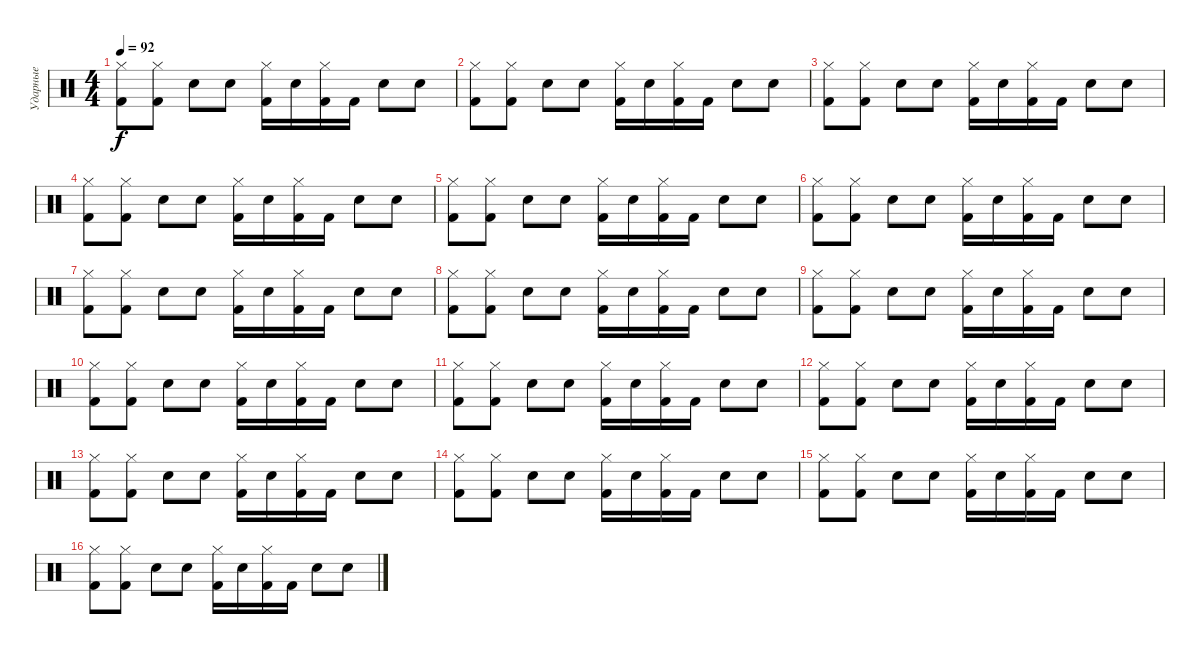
\track ("Ударные" "Ударные") {instrument percussion}
\staff {score}
\articulation defaults
\ts (4 4)
\tempo 92
\clef neutral
\ks c
("Kick (hit) 2" "Hi-Hat (closed)").8{dy f} ("Kick (hit) 2" "Hi-Hat (closed)").8 "Electric Snare (hit)".8 "Electric Snare (hit)".8 ("Kick (hit) 2" "Hi-Hat (closed)").16 "Electric Snare (hit)".16 ("Kick (hit) 2" "Hi-Hat (closed)").16 "Kick (hit) 2".16 "Electric Snare (hit)".8 "Electric Snare (hit)".8 |
("Kick (hit) 2" "Hi-Hat (closed)").8 ("Kick (hit) 2" "Hi-Hat (closed)").8 "Electric Snare (hit)".8 "Electric Snare (hit)".8 ("Kick (hit) 2" "Hi-Hat (closed)").16 "Electric Snare (hit)".16 ("Kick (hit) 2" "Hi-Hat (closed)").16 "Kick (hit) 2".16 "Electric Snare (hit)".8 "Electric Snare (hit)".8 |
("Kick (hit) 2" "Hi-Hat (closed)").8 ("Kick (hit) 2" "Hi-Hat (closed)").8 "Electric Snare (hit)".8 "Electric Snare (hit)".8 ("Kick (hit) 2" "Hi-Hat (closed)").16 "Electric Snare (hit)".16 ("Kick (hit) 2" "Hi-Hat (closed)").16 "Kick (hit) 2".16 "Electric Snare (hit)".8 "Electric Snare (hit)".8 |
("Kick (hit) 2" "Hi-Hat (closed)").8 ("Kick (hit) 2" "Hi-Hat (closed)").8 "Electric Snare (hit)".8 "Electric Snare (hit)".8 ("Kick (hit) 2" "Hi-Hat (closed)").16 "Electric Snare (hit)".16 ("Kick (hit) 2" "Hi-Hat (closed)").16 "Kick (hit) 2".16 "Electric Snare (hit)".8 "Electric Snare (hit)".8 |
("Kick (hit) 2" "Hi-Hat (closed)").8 ("Kick (hit) 2" "Hi-Hat (closed)").8 "Electric Snare (hit)".8 "Electric Snare (hit)".8 ("Kick (hit) 2" "Hi-Hat (closed)").16 "Electric Snare (hit)".16 ("Kick (hit) 2" "Hi-Hat (closed)").16 "Kick (hit) 2".16 "Electric Snare (hit)".8 "Electric Snare (hit)".8 |
("Kick (hit) 2" "Hi-Hat (closed)").8 ("Kick (hit) 2" "Hi-Hat (closed)").8 "Electric Snare (hit)".8 "Electric Snare (hit)".8 ("Kick (hit) 2" "Hi-Hat (closed)").16 "Electric Snare (hit)".16 ("Kick (hit) 2" "Hi-Hat (closed)").16 "Kick (hit) 2".16 "Electric Snare (hit)".8 "Electric Snare (hit)".8 |
("Kick (hit) 2" "Hi-Hat (closed)").8 ("Kick (hit) 2" "Hi-Hat (closed)").8 "Electric Snare (hit)".8 "Electric Snare (hit)".8 ("Kick (hit) 2" "Hi-Hat (closed)").16 "Electric Snare (hit)".16 ("Kick (hit) 2" "Hi-Hat (closed)").16 "Kick (hit) 2".16 "Electric Snare (hit)".8 "Electric Snare (hit)".8 |
("Kick (hit) 2" "Hi-Hat (closed)").8 ("Kick (hit) 2" "Hi-Hat (closed)").8 "Electric Snare (hit)".8 "Electric Snare (hit)".8 ("Kick (hit) 2" "Hi-Hat (closed)").16 "Electric Snare (hit)".16 ("Kick (hit) 2" "Hi-Hat (closed)").16 "Kick (hit) 2".16 "Electric Snare (hit)".8 "Electric Snare (hit)".8 |
("Kick (hit) 2" "Hi-Hat (closed)").8 ("Kick (hit) 2" "Hi-Hat (closed)").8 "Electric Snare (hit)".8 "Electric Snare (hit)".8 ("Kick (hit) 2" "Hi-Hat (closed)").16 "Electric Snare (hit)".16 ("Kick (hit) 2" "Hi-Hat (closed)").16 "Kick (hit) 2".16 "Electric Snare (hit)".8 "Electric Snare (hit)".8 |
("Kick (hit) 2" "Hi-Hat (closed)").8 ("Kick (hit) 2" "Hi-Hat (closed)").8 "Electric Snare (hit)".8 "Electric Snare (hit)".8 ("Kick (hit) 2" "Hi-Hat (closed)").16 "Electric Snare (hit)".16 ("Kick (hit) 2" "Hi-Hat (closed)").16 "Kick (hit) 2".16 "Electric Snare (hit)".8 "Electric Snare (hit)".8 |
("Kick (hit) 2" "Hi-Hat (closed)").8 ("Kick (hit) 2" "Hi-Hat (closed)").8 "Electric Snare (hit)".8 "Electric Snare (hit)".8 ("Kick (hit) 2" "Hi-Hat (closed)").16 "Electric Snare (hit)".16 ("Kick (hit) 2" "Hi-Hat (closed)").16 "Kick (hit) 2".16 "Electric Snare (hit)".8 "Electric Snare (hit)".8 |
("Kick (hit) 2" "Hi-Hat (closed)").8 ("Kick (hit) 2" "Hi-Hat (closed)").8 "Electric Snare (hit)".8 "Electric Snare (hit)".8 ("Kick (hit) 2" "Hi-Hat (closed)").16 "Electric Snare (hit)".16 ("Kick (hit) 2" "Hi-Hat (closed)").16 "Kick (hit) 2".16 "Electric Snare (hit)".8 "Electric Snare (hit)".8 |
("Kick (hit) 2" "Hi-Hat (closed)").8 ("Kick (hit) 2" "Hi-Hat (closed)").8 "Electric Snare (hit)".8 "Electric Snare (hit)".8 ("Kick (hit) 2" "Hi-Hat (closed)").16 "Electric Snare (hit)".16 ("Kick (hit) 2" "Hi-Hat (closed)").16 "Kick (hit) 2".16 "Electric Snare (hit)".8 "Electric Snare (hit)".8 |
("Kick (hit) 2" "Hi-Hat (closed)").8 ("Kick (hit) 2" "Hi-Hat (closed)").8 "Electric Snare (hit)".8 "Electric Snare (hit)".8 ("Kick (hit) 2" "Hi-Hat (closed)").16 "Electric Snare (hit)".16 ("Kick (hit) 2" "Hi-Hat (closed)").16 "Kick (hit) 2".16 "Electric Snare (hit)".8 "Electric Snare (hit)".8 |
("Kick (hit) 2" "Hi-Hat (closed)").8 ("Kick (hit) 2" "Hi-Hat (closed)").8 "Electric Snare (hit)".8 "Electric Snare (hit)".8 ("Kick (hit) 2" "Hi-Hat (closed)").16 "Electric Snare (hit)".16 ("Kick (hit) 2" "Hi-Hat (closed)").16 "Kick (hit) 2".16 "Electric Snare (hit)".8 "Electric Snare (hit)".8 |
("Kick (hit) 2" "Hi-Hat (closed)").8 ("Kick (hit) 2" "Hi-Hat (closed)").8 "Electric Snare (hit)".8 "Electric Snare (hit)".8 ("Kick (hit) 2" "Hi-Hat (closed)").16 "Electric Snare (hit)".16 ("Kick (hit) 2" "Hi-Hat (closed)").16 "Kick (hit) 2".16 "Electric Snare (hit)".8 "Electric Snare (hit)".8
